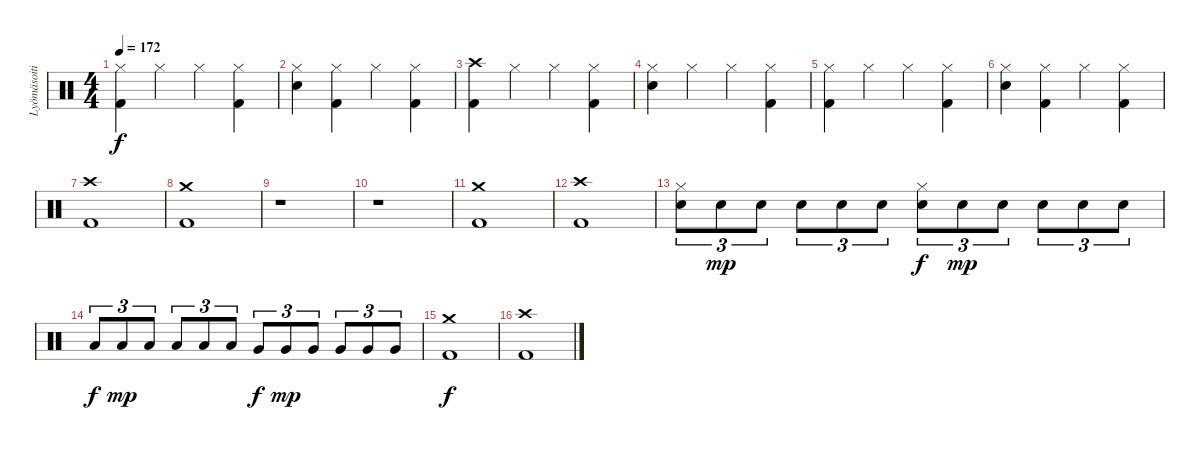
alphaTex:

\track ("Lyömäsoitin" "Lyömäsoiti") {instrument percussion}
\staff {score}
\articulation defaults
\ts (4 4)
\tempo 172
\clef neutral
\ks c
("Kick (hit) 2" "Hi-Hat (closed)").4{dy f} "Hi-Hat (closed)".4 "Hi-Hat (closed)".4 ("Kick (hit) 2" "Hi-Hat (closed)").4 |
("Hi-Hat (closed)" "Snare (hit) 2").4 ("Kick (hit) 2" "Hi-Hat (closed)").4 "Hi-Hat (closed)".4 ("Kick (hit) 2" "Hi-Hat (closed)").4 |
("Kick (hit) 2" "Crash high (hit)").4 "Hi-Hat (closed)".4 "Hi-Hat (closed)".4 ("Kick (hit) 2" "Hi-Hat (closed)").4 |
("Hi-Hat (closed)" "Snare (hit) 2").4 "Hi-Hat (closed)".4 "Hi-Hat (closed)".4 ("Kick (hit) 2" "Hi-Hat (closed)").4 |
("Kick (hit) 2" "Hi-Hat (closed)").4 "Hi-Hat (closed)".4 "Hi-Hat (closed)".4 ("Kick (hit) 2" "Hi-Hat (closed)").4 |
("Hi-Hat (closed)" "Snare (hit) 2").4 ("Kick (hit) 2" "Hi-Hat (closed)").4 "Hi-Hat (closed)".4 ("Kick (hit) 2" "Hi-Hat (closed)").4 |
("Kick (hit) 2" "Crash high (hit)").1 |
("Kick (hit) 2" "Crash medium (hit)").1 |
r.1 |
r.1 |
("Kick (hit) 2" "Crash medium (hit)").1 |
("Kick (hit) 2" "Crash high (hit)").1 |
("Hi-Hat (closed)" "Snare (hit) 2").8{tu (3 2)} "Snare (hit) 2".8{tu (3 2) dy mp} "Snare (hit) 2".8{tu (3 2)} "Snare (hit) 2".8{tu (3 2)} "Snare (hit) 2".8{tu (3 2)} "Snare (hit) 2".8{tu (3 2)} ("Hi-Hat (closed)" "Snare (hit) 2").8{tu (3 2) dy f} "Snare (hit) 2".8{tu (3 2) dy mp} "Snare (hit) 2".8{tu (3 2)} "Snare (hit) 2".8{tu (3 2)} "Snare (hit) 2".8{tu (3 2)} "Snare (hit) 2".8{tu (3 2)} |
"Low Tom (hit)".8{tu (3 2) dy f} "Low Tom (hit)".8{tu (3 2) dy mp} "Low Tom (hit)".8{tu (3 2)} "Low Tom (hit)".8{tu (3 2)} "Low Tom (hit)".8{tu (3 2)} "Low Tom (hit)".8{tu (3 2)} "Very Low Tom (hit)".8{tu (3 2) dy f} "Very Low Tom (hit)".8{tu (3 2) dy mp} "Very Low Tom (hit)".8{tu (3 2)} "Very Low Tom (hit)".8{tu (3 2)} "Very Low Tom (hit)".8{tu (3 2)} "Very Low Tom (hit)".8{tu (3 2)} |
("Kick (hit) 2" "Crash medium (hit)").1{dy f} |
("Kick (hit) 2" "Crash high (hit)").1
